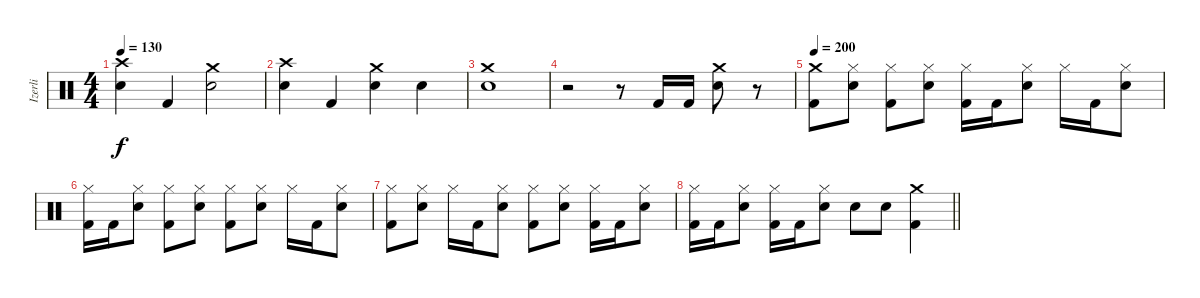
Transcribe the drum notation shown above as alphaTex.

\track ("Izerli" "Izerli") {instrument percussion}
\staff {score}
\articulation defaults
\ts (4 4)
\tempo 130
\clef neutral
\ks c
("Crash high (hit)" "Electric Snare (hit)").4{dy f} "Kick (hit) 2".4 ("Crash medium (hit)" "Electric Snare (hit)").2 |
("Crash high (hit)" "Electric Snare (hit)").4 "Kick (hit) 2".4 ("Crash medium (hit)" "Electric Snare (hit)").4 "Electric Snare (hit)".4 |
("Crash medium (hit)" "Electric Snare (hit)").1 |
r.2 r.8 "Kick (hit) 2".16 "Kick (hit) 2".16 ("Crash medium (hit)" "Electric Snare (hit)").8 r.8 |
\tempo 200
("Crash medium (hit)" "Kick (hit) 2").8 ("Hi-Hat (closed)" "Electric Snare (hit)").8 ("Hi-Hat (closed)" "Kick (hit) 2").8 ("Hi-Hat (closed)" "Electric Snare (hit)").8 ("Hi-Hat (closed)" "Kick (hit) 2").16 "Kick (hit) 2".16 ("Hi-Hat (closed)" "Electric Snare (hit)").8 "Hi-Hat (closed)".16 "Kick (hit) 2".16 ("Hi-Hat (closed)" "Electric Snare (hit)").8 |
("Hi-Hat (closed)" "Kick (hit) 2").16 "Kick (hit) 2".16 ("Hi-Hat (closed)" "Electric Snare (hit)").8 ("Hi-Hat (closed)" "Kick (hit) 2").8 ("Hi-Hat (closed)" "Electric Snare (hit)").8 ("Hi-Hat (closed)" "Kick (hit) 2").8 ("Hi-Hat (closed)" "Electric Snare (hit)").8 "Hi-Hat (closed)".16 "Kick (hit) 2".16 ("Hi-Hat (closed)" "Electric Snare (hit)").8 |
("Hi-Hat (closed)" "Kick (hit) 2").8 ("Hi-Hat (closed)" "Electric Snare (hit)").8 "Hi-Hat (closed)".16 "Kick (hit) 2".16 ("Hi-Hat (closed)" "Electric Snare (hit)").8 ("Hi-Hat (closed)" "Kick (hit) 2").8 ("Hi-Hat (closed)" "Electric Snare (hit)").8 ("Hi-Hat (closed)" "Kick (hit) 2").16 "Kick (hit) 2".16 ("Hi-Hat (closed)" "Electric Snare (hit)").8 |
\barLineRight lightlight
("Hi-Hat (closed)" "Kick (hit) 2").16 "Kick (hit) 2".16 ("Hi-Hat (closed)" "Electric Snare (hit)").8 ("Hi-Hat (closed)" "Kick (hit) 2").16 "Kick (hit) 2".16 ("Hi-Hat (closed)" "Electric Snare (hit)").8 "Electric Snare (hit)".8 "Electric Snare (hit)".8 ("Crash medium (hit)" "Kick (hit) 2").4
